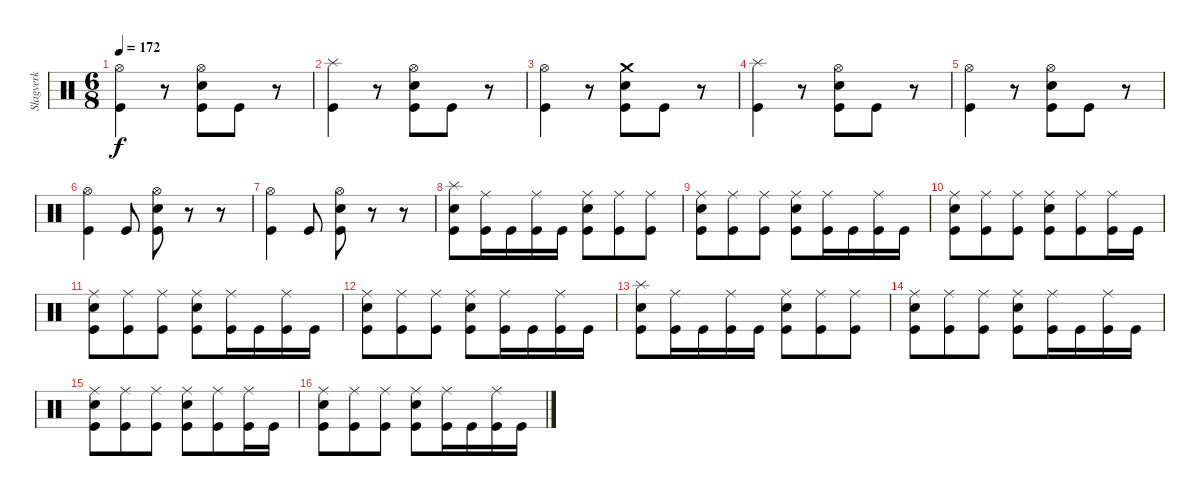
\track ("Slagverk" "Slagverk") {instrument percussion}
\staff {score}
\articulation defaults
\ts (6 8)
\tempo 172
\clef neutral
\ks c
("Hi-Hat (open)" "Kick (hit)").4{dy f} r.8 ("Hi-Hat (open)" "Snare (hit) 2" "Kick (hit)").8 "Kick (hit)".8 r.8 |
("Splash (hit)" "Kick (hit)").4 r.8 ("Hi-Hat (open)" "Snare (hit) 2" "Kick (hit)").8 "Kick (hit)".8 r.8 |
("Hi-Hat (open)" "Kick (hit)").4 r.8 ("Crash medium (hit)" "Snare (hit) 2" "Kick (hit)").8 "Kick (hit)".8 r.8 |
("Splash (hit)" "Kick (hit)").4 r.8 ("Hi-Hat (open)" "Snare (hit) 2" "Kick (hit)").8 "Kick (hit)".8 r.8 |
("Hi-Hat (open)" "Kick (hit)").4 r.8 ("Hi-Hat (open)" "Snare (hit) 2" "Kick (hit)").8 "Kick (hit)".8 r.8 |
("Hi-Hat (open)" "Kick (hit)").4 "Kick (hit)".8 ("Hi-Hat (open)" "Snare (hit) 2" "Kick (hit)").8 r.8 r.8 |
("Hi-Hat (open)" "Kick (hit)").4 "Kick (hit)".8 ("Hi-Hat (open)" "Snare (hit) 2" "Kick (hit)").8 r.8 r.8 |
("Splash (hit)" "Snare (hit) 2" "Kick (hit)").8 ("Ride (middle)" "Kick (hit)").16 "Kick (hit)".16 ("Ride (middle)" "Kick (hit)").16 "Kick (hit)".16 ("Ride (middle)" "Snare (hit) 2" "Kick (hit)").8 ("Ride (middle)" "Kick (hit)").8 ("Ride (middle)" "Kick (hit)").8 |
("Ride (middle)" "Snare (hit) 2" "Kick (hit)").8 ("Ride (middle)" "Kick (hit)").8 ("Ride (middle)" "Kick (hit)").8 ("Ride (middle)" "Snare (hit) 2" "Kick (hit)").8 ("Ride (middle)" "Kick (hit)").16 "Kick (hit)".16 ("Ride (middle)" "Kick (hit)").16 "Kick (hit)".16 |
("Ride (middle)" "Snare (hit) 2" "Kick (hit)").8 ("Ride (middle)" "Kick (hit)").8 ("Ride (middle)" "Kick (hit)").8 ("Ride (middle)" "Snare (hit) 2" "Kick (hit)").8 ("Ride (middle)" "Kick (hit)").8 ("Ride (middle)" "Kick (hit)").16 "Kick (hit)".16 |
("Ride (middle)" "Snare (hit) 2" "Kick (hit)").8 ("Ride (middle)" "Kick (hit)").8 ("Ride (middle)" "Kick (hit)").8 ("Ride (middle)" "Snare (hit) 2" "Kick (hit)").8 ("Ride (middle)" "Kick (hit)").16 "Kick (hit)".16 ("Ride (middle)" "Kick (hit)").16 "Kick (hit)".16 |
("Ride (middle)" "Snare (hit) 2" "Kick (hit)").8 ("Ride (middle)" "Kick (hit)").8 ("Ride (middle)" "Kick (hit)").8 ("Ride (middle)" "Snare (hit) 2" "Kick (hit)").8 ("Ride (middle)" "Kick (hit)").16 "Kick (hit)".16 ("Ride (middle)" "Kick (hit)").16 "Kick (hit)".16 |
("Splash (hit)" "Snare (hit) 2" "Kick (hit)").8 ("Ride (middle)" "Kick (hit)").16 "Kick (hit)".16 ("Ride (middle)" "Kick (hit)").16 "Kick (hit)".16 ("Ride (middle)" "Snare (hit) 2" "Kick (hit)").8 ("Ride (middle)" "Kick (hit)").8 ("Ride (middle)" "Kick (hit)").8 |
("Ride (middle)" "Snare (hit) 2" "Kick (hit)").8 ("Ride (middle)" "Kick (hit)").8 ("Ride (middle)" "Kick (hit)").8 ("Ride (middle)" "Snare (hit) 2" "Kick (hit)").8 ("Ride (middle)" "Kick (hit)").16 "Kick (hit)".16 ("Ride (middle)" "Kick (hit)").16 "Kick (hit)".16 |
("Ride (middle)" "Snare (hit) 2" "Kick (hit)").8 ("Ride (middle)" "Kick (hit)").8 ("Ride (middle)" "Kick (hit)").8 ("Ride (middle)" "Snare (hit) 2" "Kick (hit)").8 ("Ride (middle)" "Kick (hit)").8 ("Ride (middle)" "Kick (hit)").16 "Kick (hit)".16 |
("Ride (middle)" "Snare (hit) 2" "Kick (hit)").8 ("Ride (middle)" "Kick (hit)").8 ("Ride (middle)" "Kick (hit)").8 ("Ride (middle)" "Snare (hit) 2" "Kick (hit)").8 ("Ride (middle)" "Kick (hit)").16 "Kick (hit)".16 ("Ride (middle)" "Kick (hit)").16 "Kick (hit)".16
